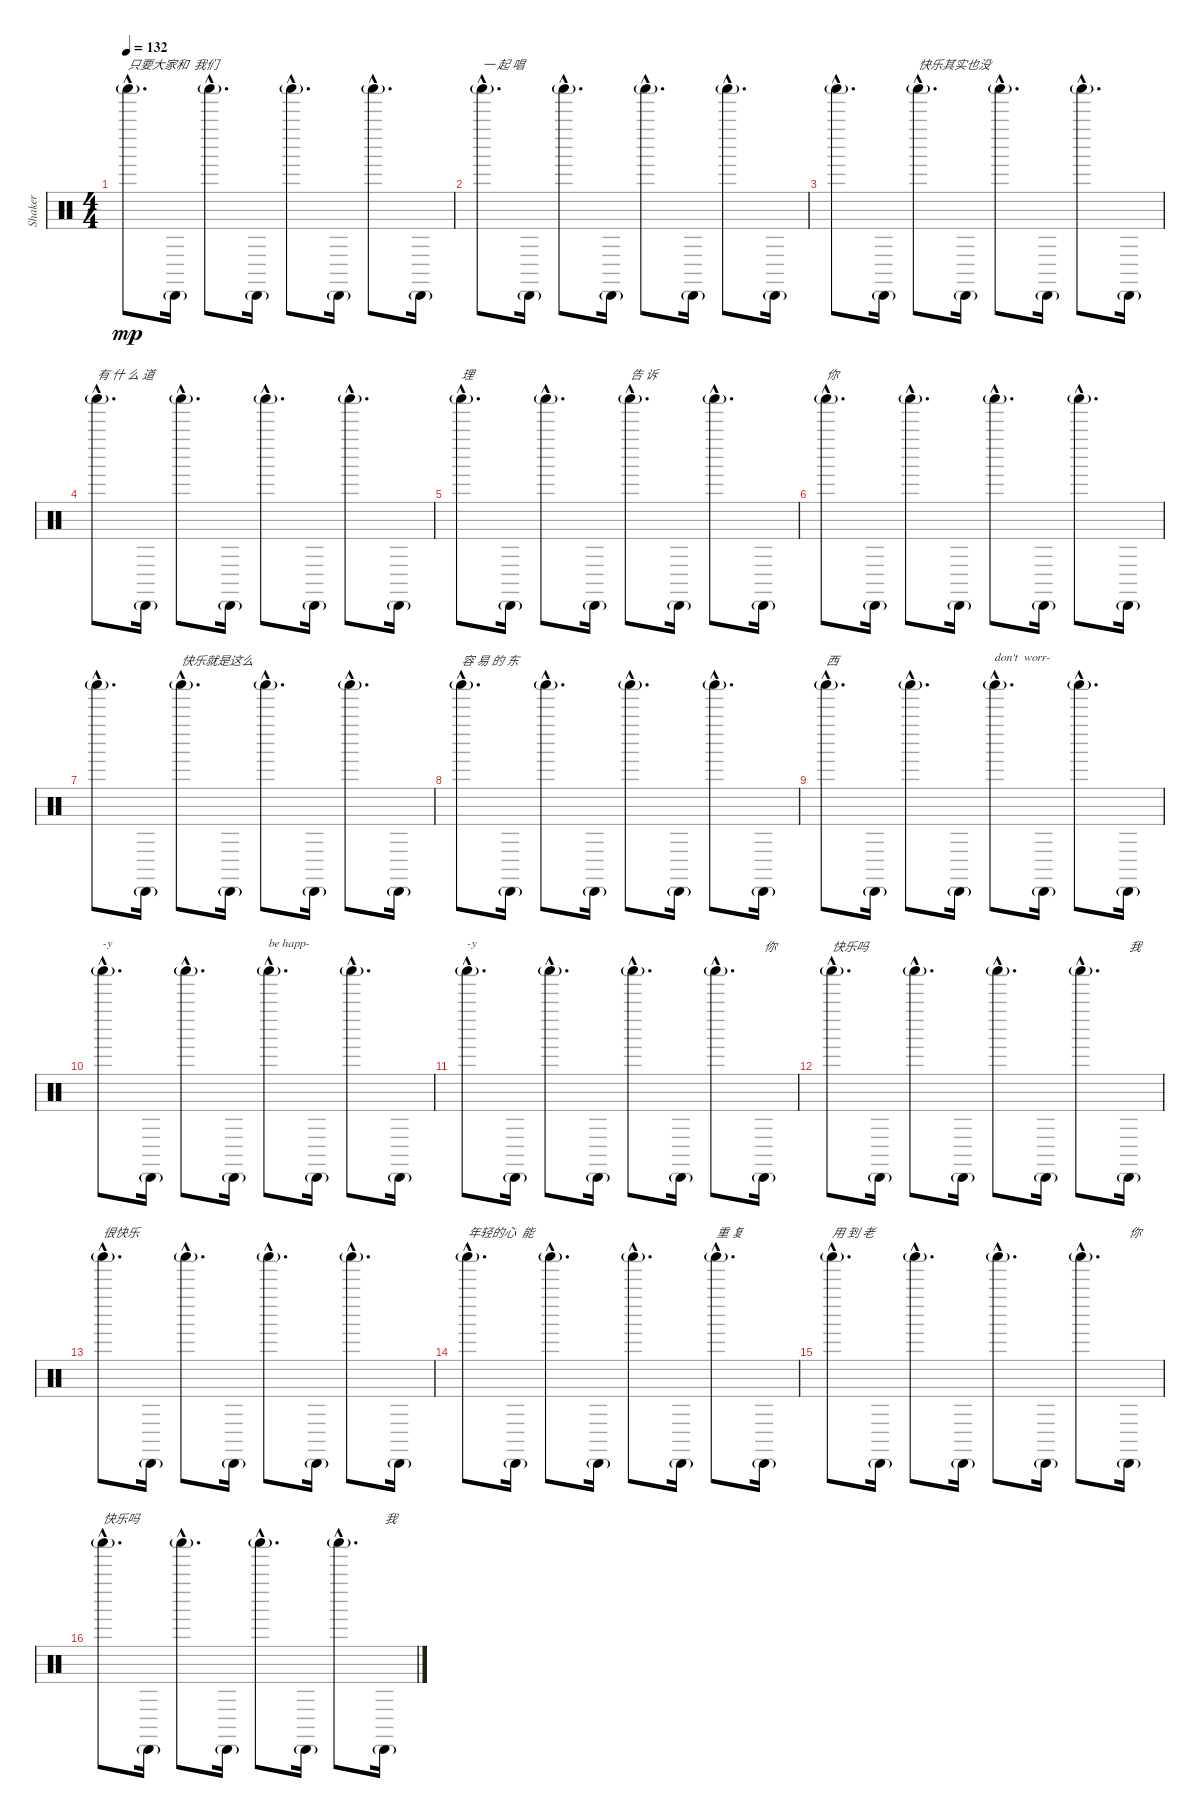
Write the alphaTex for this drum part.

\track ("Shaker" "Shaker") {instrument percussion}
\staff {score}
\articulation defaults
\ts (4 4)
\tempo 132
\clef neutral
\ks c "Shaker (hit)"{g hac}.8{d txt "只要大家和  我们" dy mp} "Cabasa (hit)"{g}.16 "Shaker (hit)"{g hac}.8{d} "Cabasa (hit)"{g}.16 "Shaker (hit)"{g hac}.8{d} "Cabasa (hit)"{g}.16 "Shaker (hit)"{g hac}.8{d} "Cabasa (hit)"{g}.16
|
"Shaker (hit)"{g hac}.8{d txt "一 起 唱"} "Cabasa (hit)"{g}.16 "Shaker (hit)"{g hac}.8{d} "Cabasa (hit)"{g}.16 "Shaker (hit)"{g hac}.8{d} "Cabasa (hit)"{g}.16 "Shaker (hit)"{g hac}.8{d} "Cabasa (hit)"{g}.16 |
"Shaker (hit)"{g hac}.8{d} "Cabasa (hit)"{g}.16 "Shaker (hit)"{g hac}.8{d txt "快乐其实也没"} "Cabasa (hit)"{g}.16 "Shaker (hit)"{g hac}.8{d} "Cabasa (hit)"{g}.16 "Shaker (hit)"{g hac}.8{d} "Cabasa (hit)"{g}.16 |
"Shaker (hit)"{g hac}.8{d txt "有 什 么 道"} "Cabasa (hit)"{g}.16 "Shaker (hit)"{g hac}.8{d} "Cabasa (hit)"{g}.16 "Shaker (hit)"{g hac}.8{d} "Cabasa (hit)"{g}.16 "Shaker (hit)"{g hac}.8{d} "Cabasa (hit)"{g}.16 |
"Shaker (hit)"{g hac}.8{d txt "理"} "Cabasa (hit)"{g}.16 "Shaker (hit)"{g hac}.8{d} "Cabasa (hit)"{g}.16 "Shaker (hit)"{g hac}.8{d txt "告 诉"} "Cabasa (hit)"{g}.16 "Shaker (hit)"{g hac}.8{d} "Cabasa (hit)"{g}.16 |
"Shaker (hit)"{g hac}.8{d txt "你"} "Cabasa (hit)"{g}.16 "Shaker (hit)"{g hac}.8{d} "Cabasa (hit)"{g}.16 "Shaker (hit)"{g hac}.8{d} "Cabasa (hit)"{g}.16 "Shaker (hit)"{g hac}.8{d} "Cabasa (hit)"{g}.16 |
"Shaker (hit)"{g hac}.8{d} "Cabasa (hit)"{g}.16 "Shaker (hit)"{g hac}.8{d txt "快乐就是这么"} "Cabasa (hit)"{g}.16 "Shaker (hit)"{g hac}.8{d} "Cabasa (hit)"{g}.16 "Shaker (hit)"{g hac}.8{d} "Cabasa (hit)"{g}.16 |
"Shaker (hit)"{g hac}.8{d txt "容 易 的 东"} "Cabasa (hit)"{g}.16 "Shaker (hit)"{g hac}.8{d} "Cabasa (hit)"{g}.16 "Shaker (hit)"{g hac}.8{d} "Cabasa (hit)"{g}.16 "Shaker (hit)"{g hac}.8{d} "Cabasa (hit)"{g}.16 |
"Shaker (hit)"{g hac}.8{d txt "西"} "Cabasa (hit)"{g}.16 "Shaker (hit)"{g hac}.8{d} "Cabasa (hit)"{g}.16 "Shaker (hit)"{g hac}.8{d txt "don't  worr-"} "Cabasa (hit)"{g}.16 "Shaker (hit)"{g hac}.8{d} "Cabasa (hit)"{g}.16 |
"Shaker (hit)"{g hac}.8{d txt "-y"} "Cabasa (hit)"{g}.16 "Shaker (hit)"{g hac}.8{d} "Cabasa (hit)"{g}.16 "Shaker (hit)"{g hac}.8{d txt "be happ-"} "Cabasa (hit)"{g}.16 "Shaker (hit)"{g hac}.8{d} "Cabasa (hit)"{g}.16 |
"Shaker (hit)"{g hac}.8{d txt "-y"} "Cabasa (hit)"{g}.16 "Shaker (hit)"{g hac}.8{d} "Cabasa (hit)"{g}.16 "Shaker (hit)"{g hac}.8{d} "Cabasa (hit)"{g}.16 "Shaker (hit)"{g hac}.8{d} "Cabasa (hit)"{g}.16{txt "你"} |
"Shaker (hit)"{g hac}.8{d txt "快乐吗 "} "Cabasa (hit)"{g}.16 "Shaker (hit)"{g hac}.8{d} "Cabasa (hit)"{g}.16 "Shaker (hit)"{g hac}.8{d} "Cabasa (hit)"{g}.16 "Shaker (hit)"{g hac}.8{d} "Cabasa (hit)"{g}.16{txt "我"} |
"Shaker (hit)"{g hac}.8{d txt "很快乐"} "Cabasa (hit)"{g}.16 "Shaker (hit)"{g hac}.8{d} "Cabasa (hit)"{g}.16 "Shaker (hit)"{g hac}.8{d} "Cabasa (hit)"{g}.16 "Shaker (hit)"{g hac}.8{d} "Cabasa (hit)"{g}.16 |
"Shaker (hit)"{g hac}.8{d txt "年轻的心  能"} "Cabasa (hit)"{g}.16 "Shaker (hit)"{g hac}.8{d} "Cabasa (hit)"{g}.16 "Shaker (hit)"{g hac}.8{d} "Cabasa (hit)"{g}.16 "Shaker (hit)"{g hac}.8{d txt "重 复"} "Cabasa (hit)"{g}.16 |
"Shaker (hit)"{g hac}.8{d txt "用 到 老"} "Cabasa (hit)"{g}.16 "Shaker (hit)"{g hac}.8{d} "Cabasa (hit)"{g}.16 "Shaker (hit)"{g hac}.8{d} "Cabasa (hit)"{g}.16 "Shaker (hit)"{g hac}.8{d} "Cabasa (hit)"{g}.16{txt "你"} |
"Shaker (hit)"{g hac}.8{d txt "快乐吗 "} "Cabasa (hit)"{g}.16 "Shaker (hit)"{g hac}.8{d} "Cabasa (hit)"{g}.16 "Shaker (hit)"{g hac}.8{d} "Cabasa (hit)"{g}.16 "Shaker (hit)"{g hac}.8{d} "Cabasa (hit)"{g}.16{txt "我"}
